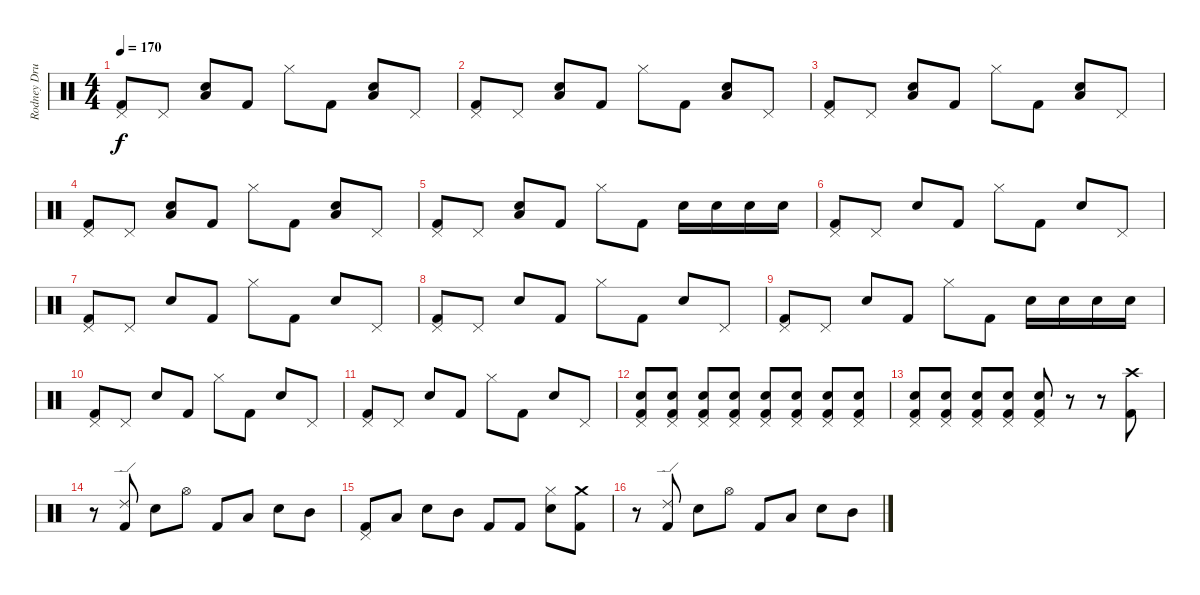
\track ("Rodney Drums" "Rodney Dru") {instrument percussion}
\staff {score}
\articulation defaults
\ts (4 4)
\tempo 170
\clef neutral
\ks c
("Pedal Hi-Hat (hit)" "Kick (hit) 2").8{dy f} "Pedal Hi-Hat (hit)".8 ("Electric Snare (hit)" "Low Tom (hit)").8 "Kick (hit) 2".8 "Hi-Hat (closed)".8 "Kick (hit) 2".8 ("Electric Snare (hit)" "Low Tom (hit)").8 "Pedal Hi-Hat (hit)".8 |
("Pedal Hi-Hat (hit)" "Kick (hit) 2").8 "Pedal Hi-Hat (hit)".8 ("Electric Snare (hit)" "Low Tom (hit)").8 "Kick (hit) 2".8 "Hi-Hat (closed)".8 "Kick (hit) 2".8 ("Electric Snare (hit)" "Low Tom (hit)").8 "Pedal Hi-Hat (hit)".8 |
("Pedal Hi-Hat (hit)" "Kick (hit) 2").8 "Pedal Hi-Hat (hit)".8 ("Electric Snare (hit)" "Low Tom (hit)").8 "Kick (hit) 2".8 "Hi-Hat (closed)".8 "Kick (hit) 2".8 ("Electric Snare (hit)" "Low Tom (hit)").8 "Pedal Hi-Hat (hit)".8 |
("Pedal Hi-Hat (hit)" "Kick (hit) 2").8 "Pedal Hi-Hat (hit)".8 ("Electric Snare (hit)" "Low Tom (hit)").8 "Kick (hit) 2".8 "Hi-Hat (closed)".8 "Kick (hit) 2".8 ("Electric Snare (hit)" "Low Tom (hit)").8 "Pedal Hi-Hat (hit)".8 |
("Pedal Hi-Hat (hit)" "Kick (hit) 2").8 "Pedal Hi-Hat (hit)".8 ("Electric Snare (hit)" "Low Tom (hit)").8 "Kick (hit) 2".8 "Hi-Hat (closed)".8 "Kick (hit) 2".8 "Electric Snare (hit)".16 "Electric Snare (hit)".16 "Electric Snare (hit)".16 "Electric Snare (hit)".16 |
("Pedal Hi-Hat (hit)" "Kick (hit) 2").8 "Pedal Hi-Hat (hit)".8 "Electric Snare (hit)".8 "Kick (hit) 2".8 "Hi-Hat (closed)".8 "Kick (hit) 2".8 "Electric Snare (hit)".8 "Pedal Hi-Hat (hit)".8 |
("Pedal Hi-Hat (hit)" "Kick (hit) 2").8 "Pedal Hi-Hat (hit)".8 "Electric Snare (hit)".8 "Kick (hit) 2".8 "Hi-Hat (closed)".8 "Kick (hit) 2".8 "Electric Snare (hit)".8 "Pedal Hi-Hat (hit)".8 |
("Pedal Hi-Hat (hit)" "Kick (hit) 2").8 "Pedal Hi-Hat (hit)".8 "Electric Snare (hit)".8 "Kick (hit) 2".8 "Hi-Hat (closed)".8 "Kick (hit) 2".8 "Electric Snare (hit)".8 "Pedal Hi-Hat (hit)".8 |
("Pedal Hi-Hat (hit)" "Kick (hit) 2").8 "Pedal Hi-Hat (hit)".8 "Electric Snare (hit)".8 "Kick (hit) 2".8 "Hi-Hat (closed)".8 "Kick (hit) 2".8 "Electric Snare (hit)".16 "Electric Snare (hit)".16 "Electric Snare (hit)".16 "Electric Snare (hit)".16 |
("Pedal Hi-Hat (hit)" "Kick (hit) 2").8 "Pedal Hi-Hat (hit)".8 "Electric Snare (hit)".8 "Kick (hit) 2".8 "Hi-Hat (closed)".8 "Kick (hit) 2".8 "Electric Snare (hit)".8 "Pedal Hi-Hat (hit)".8 |
("Pedal Hi-Hat (hit)" "Kick (hit) 2").8 "Pedal Hi-Hat (hit)".8 "Electric Snare (hit)".8 "Kick (hit) 2".8 "Hi-Hat (closed)".8 "Kick (hit) 2".8 "Electric Snare (hit)".8 "Pedal Hi-Hat (hit)".8 |
("Pedal Hi-Hat (hit)" "Electric Snare (hit)" "Kick (hit) 2").8 ("Pedal Hi-Hat (hit)" "Electric Snare (hit)" "Kick (hit) 2").8 ("Pedal Hi-Hat (hit)" "Electric Snare (hit)" "Kick (hit) 2").8 ("Pedal Hi-Hat (hit)" "Electric Snare (hit)" "Kick (hit) 2").8 ("Pedal Hi-Hat (hit)" "Electric Snare (hit)" "Kick (hit) 2").8 ("Pedal Hi-Hat (hit)" "Electric Snare (hit)" "Kick (hit) 2").8 ("Pedal Hi-Hat (hit)" "Electric Snare (hit)" "Kick (hit) 2").8 ("Pedal Hi-Hat (hit)" "Electric Snare (hit)" "Kick (hit) 2").8 |
("Pedal Hi-Hat (hit)" "Electric Snare (hit)" "Kick (hit) 2").8 ("Pedal Hi-Hat (hit)" "Electric Snare (hit)" "Kick (hit) 2").8 ("Pedal Hi-Hat (hit)" "Electric Snare (hit)" "Kick (hit) 2").8 ("Pedal Hi-Hat (hit)" "Electric Snare (hit)" "Kick (hit) 2").8 ("Pedal Hi-Hat (hit)" "Electric Snare (hit)" "Kick (hit) 2").8 r.8 r.8 ("Crash high (hit)" "Kick (hit) 2").8 |
r.8 ("Ride (edge) 2" "Kick (hit) 2").8 "Electric Snare (hit)".8 "Hi-Hat (open)".8 "Kick (hit) 2".8 "Low Tom (hit)".8 "Electric Snare (hit)".8 "Mid Tom (hit)".8 |
("Pedal Hi-Hat (hit)" "Kick (hit) 2").8 "Low Tom (hit)".8 "Electric Snare (hit)".8 "Mid Tom (hit)".8 "Kick (hit) 2".8 "Kick (hit) 2".8 ("Hi-Hat (closed)" "Electric Snare (hit)").8 ("Crash medium (hit)" "Kick (hit) 2").8 |
r.8 ("Ride (edge) 2" "Kick (hit) 2").8 "Electric Snare (hit)".8 "Hi-Hat (open)".8 "Kick (hit) 2".8 "Low Tom (hit)".8 "Electric Snare (hit)".8 "Mid Tom (hit)".8
